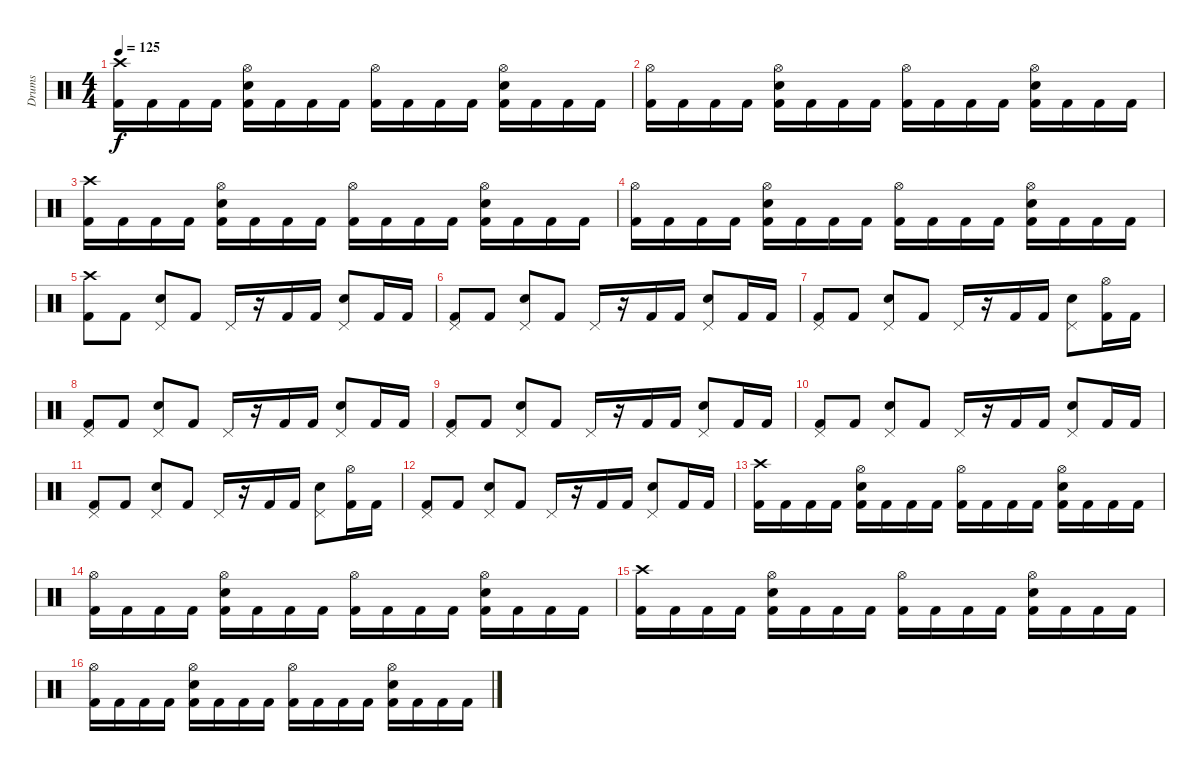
\track ("Drums" "Drums") {instrument percussion}
\staff {score}
\articulation defaults
\ts (4 4)
\tempo 125
\clef neutral
\ks c
("Kick (hit) 2" "Crash high (hit)").16{dy f} "Kick (hit) 2".16 "Kick (hit) 2".16 "Kick (hit) 2".16 ("Kick (hit) 2" "Electric Snare (hit)" "Hi-Hat (open)").16 "Kick (hit) 2".16 "Kick (hit) 2".16 "Kick (hit) 2".16 ("Kick (hit) 2" "Hi-Hat (open)").16 "Kick (hit) 2".16 "Kick (hit) 2".16 "Kick (hit) 2".16 ("Kick (hit) 2" "Electric Snare (hit)" "Hi-Hat (open)").16 "Kick (hit) 2".16 "Kick (hit) 2".16 "Kick (hit) 2".16 |
("Kick (hit) 2" "Hi-Hat (open)").16 "Kick (hit) 2".16 "Kick (hit) 2".16 "Kick (hit) 2".16 ("Kick (hit) 2" "Electric Snare (hit)" "Hi-Hat (open)").16 "Kick (hit) 2".16 "Kick (hit) 2".16 "Kick (hit) 2".16 ("Kick (hit) 2" "Hi-Hat (open)").16 "Kick (hit) 2".16 "Kick (hit) 2".16 "Kick (hit) 2".16 ("Kick (hit) 2" "Electric Snare (hit)" "Hi-Hat (open)").16 "Kick (hit) 2".16 "Kick (hit) 2".16 "Kick (hit) 2".16 |
("Kick (hit) 2" "Crash high (hit)").16 "Kick (hit) 2".16 "Kick (hit) 2".16 "Kick (hit) 2".16 ("Kick (hit) 2" "Electric Snare (hit)" "Hi-Hat (open)").16 "Kick (hit) 2".16 "Kick (hit) 2".16 "Kick (hit) 2".16 ("Kick (hit) 2" "Hi-Hat (open)").16 "Kick (hit) 2".16 "Kick (hit) 2".16 "Kick (hit) 2".16 ("Kick (hit) 2" "Electric Snare (hit)" "Hi-Hat (open)").16 "Kick (hit) 2".16 "Kick (hit) 2".16 "Kick (hit) 2".16 |
("Kick (hit) 2" "Hi-Hat (open)").16 "Kick (hit) 2".16 "Kick (hit) 2".16 "Kick (hit) 2".16 ("Kick (hit) 2" "Electric Snare (hit)" "Hi-Hat (open)").16 "Kick (hit) 2".16 "Kick (hit) 2".16 "Kick (hit) 2".16 ("Kick (hit) 2" "Hi-Hat (open)").16 "Kick (hit) 2".16 "Kick (hit) 2".16 "Kick (hit) 2".16 ("Kick (hit) 2" "Electric Snare (hit)" "Hi-Hat (open)").16 "Kick (hit) 2".16 "Kick (hit) 2".16 "Kick (hit) 2".16 |
("Kick (hit) 2" "Crash high (hit)").8 "Kick (hit) 2".8 ("Electric Snare (hit)" "Pedal Hi-Hat (hit)").8 "Kick (hit) 2".8 "Pedal Hi-Hat (hit)".16 r.16 "Kick (hit) 2".16 "Kick (hit) 2".16 ("Electric Snare (hit)" "Pedal Hi-Hat (hit)").8 "Kick (hit) 2".16 "Kick (hit) 2".16 |
("Kick (hit) 2" "Pedal Hi-Hat (hit)").8 "Kick (hit) 2".8 ("Electric Snare (hit)" "Pedal Hi-Hat (hit)").8 "Kick (hit) 2".8 "Pedal Hi-Hat (hit)".16 r.16 "Kick (hit) 2".16 "Kick (hit) 2".16 ("Electric Snare (hit)" "Pedal Hi-Hat (hit)").8 "Kick (hit) 2".16 "Kick (hit) 2".16 |
("Kick (hit) 2" "Pedal Hi-Hat (hit)").8 "Kick (hit) 2".8 ("Electric Snare (hit)" "Pedal Hi-Hat (hit)").8 "Kick (hit) 2".8 "Pedal Hi-Hat (hit)".16 r.16 "Kick (hit) 2".16 "Kick (hit) 2".16 ("Electric Snare (hit)" "Pedal Hi-Hat (hit)").8 ("Kick (hit) 2" "Hi-Hat (open)").16 "Kick (hit) 2".16 |
("Kick (hit) 2" "Pedal Hi-Hat (hit)").8 "Kick (hit) 2".8 ("Electric Snare (hit)" "Pedal Hi-Hat (hit)").8 "Kick (hit) 2".8 "Pedal Hi-Hat (hit)".16 r.16 "Kick (hit) 2".16 "Kick (hit) 2".16 ("Electric Snare (hit)" "Pedal Hi-Hat (hit)").8 "Kick (hit) 2".16 "Kick (hit) 2".16 |
("Kick (hit) 2" "Pedal Hi-Hat (hit)").8 "Kick (hit) 2".8 ("Electric Snare (hit)" "Pedal Hi-Hat (hit)").8 "Kick (hit) 2".8 "Pedal Hi-Hat (hit)".16 r.16 "Kick (hit) 2".16 "Kick (hit) 2".16 ("Electric Snare (hit)" "Pedal Hi-Hat (hit)").8 "Kick (hit) 2".16 "Kick (hit) 2".16 |
("Kick (hit) 2" "Pedal Hi-Hat (hit)").8 "Kick (hit) 2".8 ("Electric Snare (hit)" "Pedal Hi-Hat (hit)").8 "Kick (hit) 2".8 "Pedal Hi-Hat (hit)".16 r.16 "Kick (hit) 2".16 "Kick (hit) 2".16 ("Electric Snare (hit)" "Pedal Hi-Hat (hit)").8 "Kick (hit) 2".16 "Kick (hit) 2".16 |
("Kick (hit) 2" "Pedal Hi-Hat (hit)").8 "Kick (hit) 2".8 ("Electric Snare (hit)" "Pedal Hi-Hat (hit)").8 "Kick (hit) 2".8 "Pedal Hi-Hat (hit)".16 r.16 "Kick (hit) 2".16 "Kick (hit) 2".16 ("Electric Snare (hit)" "Pedal Hi-Hat (hit)").8 ("Kick (hit) 2" "Hi-Hat (open)").16 "Kick (hit) 2".16 |
("Kick (hit) 2" "Pedal Hi-Hat (hit)").8 "Kick (hit) 2".8 ("Electric Snare (hit)" "Pedal Hi-Hat (hit)").8 "Kick (hit) 2".8 "Pedal Hi-Hat (hit)".16 r.16 "Kick (hit) 2".16 "Kick (hit) 2".16 ("Electric Snare (hit)" "Pedal Hi-Hat (hit)").8 "Kick (hit) 2".16 "Kick (hit) 2".16 |
("Kick (hit) 2" "Crash high (hit)").16 "Kick (hit) 2".16 "Kick (hit) 2".16 "Kick (hit) 2".16 ("Kick (hit) 2" "Electric Snare (hit)" "Hi-Hat (open)").16 "Kick (hit) 2".16 "Kick (hit) 2".16 "Kick (hit) 2".16 ("Kick (hit) 2" "Hi-Hat (open)").16 "Kick (hit) 2".16 "Kick (hit) 2".16 "Kick (hit) 2".16 ("Kick (hit) 2" "Electric Snare (hit)" "Hi-Hat (open)").16 "Kick (hit) 2".16 "Kick (hit) 2".16 "Kick (hit) 2".16 |
("Kick (hit) 2" "Hi-Hat (open)").16 "Kick (hit) 2".16 "Kick (hit) 2".16 "Kick (hit) 2".16 ("Kick (hit) 2" "Electric Snare (hit)" "Hi-Hat (open)").16 "Kick (hit) 2".16 "Kick (hit) 2".16 "Kick (hit) 2".16 ("Kick (hit) 2" "Hi-Hat (open)").16 "Kick (hit) 2".16 "Kick (hit) 2".16 "Kick (hit) 2".16 ("Kick (hit) 2" "Electric Snare (hit)" "Hi-Hat (open)").16 "Kick (hit) 2".16 "Kick (hit) 2".16 "Kick (hit) 2".16 |
("Kick (hit) 2" "Crash high (hit)").16 "Kick (hit) 2".16 "Kick (hit) 2".16 "Kick (hit) 2".16 ("Kick (hit) 2" "Electric Snare (hit)" "Hi-Hat (open)").16 "Kick (hit) 2".16 "Kick (hit) 2".16 "Kick (hit) 2".16 ("Kick (hit) 2" "Hi-Hat (open)").16 "Kick (hit) 2".16 "Kick (hit) 2".16 "Kick (hit) 2".16 ("Kick (hit) 2" "Electric Snare (hit)" "Hi-Hat (open)").16 "Kick (hit) 2".16 "Kick (hit) 2".16 "Kick (hit) 2".16 |
("Kick (hit) 2" "Hi-Hat (open)").16 "Kick (hit) 2".16 "Kick (hit) 2".16 "Kick (hit) 2".16 ("Kick (hit) 2" "Electric Snare (hit)" "Hi-Hat (open)").16 "Kick (hit) 2".16 "Kick (hit) 2".16 "Kick (hit) 2".16 ("Kick (hit) 2" "Hi-Hat (open)").16 "Kick (hit) 2".16 "Kick (hit) 2".16 "Kick (hit) 2".16 ("Kick (hit) 2" "Electric Snare (hit)" "Hi-Hat (open)").16 "Kick (hit) 2".16 "Kick (hit) 2".16 "Kick (hit) 2".16
